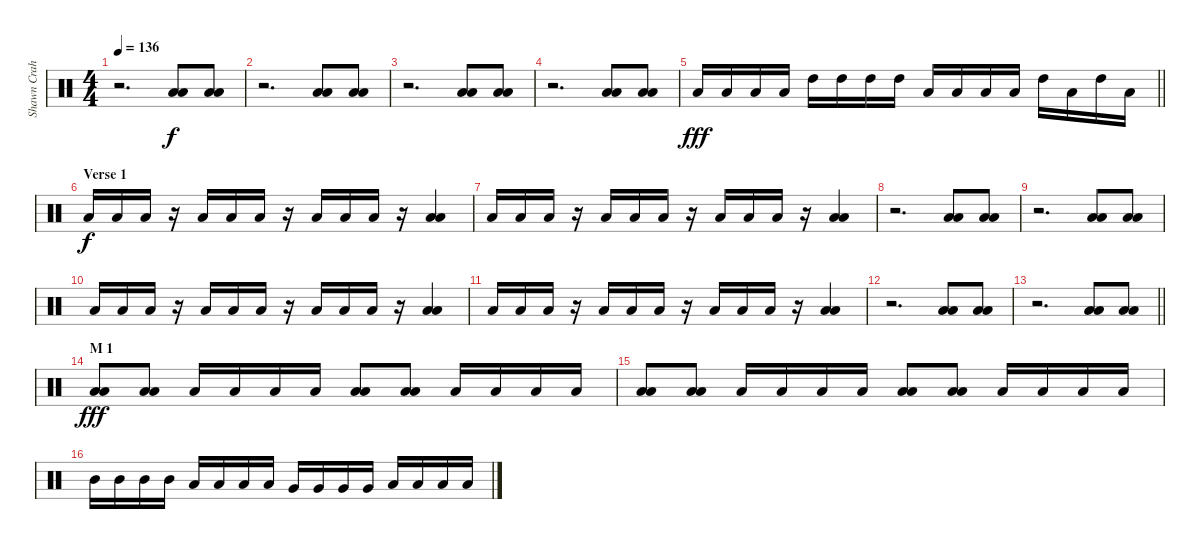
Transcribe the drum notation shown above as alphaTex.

\track ("Shawn Crahan" "Shawn Crah") {instrument percussion}
\staff {score}
\articulation defaults
\ts (4 4)
\tempo 136
\clef neutral
\ks c
r.2{d dy f} ("Low Floor Tom (hit)" "Low Floor Tom (hit)").8 ("Low Floor Tom (hit)" "Low Floor Tom (hit)").8 |
r.2{d} ("Low Floor Tom (hit)" "Low Floor Tom (hit)").8 ("Low Floor Tom (hit)" "Low Floor Tom (hit)").8 |
r.2{d} ("Low Floor Tom (hit)" "Low Floor Tom (hit)").8 ("Low Floor Tom (hit)" "Low Floor Tom (hit)").8 |
r.2{d} ("Low Floor Tom (hit)" "Low Floor Tom (hit)").8 ("Low Floor Tom (hit)" "Low Floor Tom (hit)").8 |
\barLineRight lightlight "Low Floor Tom (hit)".16{dy fff} "Low Floor Tom (hit)".16 "Low Floor Tom (hit)".16 "Low Floor Tom (hit)".16 "High Tom (hit)".16 "High Tom (hit)".16 "High Tom (hit)".16 "High Tom (hit)".16 "Low Floor Tom (hit)".16 "Low Floor Tom (hit)".16 "Low Floor Tom (hit)".16 "Low Floor Tom (hit)".16 "High Tom (hit)".16 "Low Floor Tom (hit)".16 "High Tom (hit)".16 "Low Floor Tom (hit)".16
|
\section ("" "Verse 1")
"Low Floor Tom (hit)".16{dy f} "Low Floor Tom (hit)".16 "Low Floor Tom (hit)".16 r.16 "Low Floor Tom (hit)".16 "Low Floor Tom (hit)".16 "Low Floor Tom (hit)".16 r.16 "Low Floor Tom (hit)".16 "Low Floor Tom (hit)".16 "Low Floor Tom (hit)".16 r.16 ("Low Floor Tom (hit)" "Low Floor Tom (hit)").4 |
"Low Floor Tom (hit)".16 "Low Floor Tom (hit)".16 "Low Floor Tom (hit)".16 r.16 "Low Floor Tom (hit)".16 "Low Floor Tom (hit)".16 "Low Floor Tom (hit)".16 r.16 "Low Floor Tom (hit)".16 "Low Floor Tom (hit)".16 "Low Floor Tom (hit)".16 r.16 ("Low Floor Tom (hit)" "Low Floor Tom (hit)").4 |
r.2{d} ("Low Floor Tom (hit)" "Low Floor Tom (hit)").8 ("Low Floor Tom (hit)" "Low Floor Tom (hit)").8 |
r.2{d} ("Low Floor Tom (hit)" "Low Floor Tom (hit)").8 ("Low Floor Tom (hit)" "Low Floor Tom (hit)").8 |
"Low Floor Tom (hit)".16 "Low Floor Tom (hit)".16 "Low Floor Tom (hit)".16 r.16 "Low Floor Tom (hit)".16 "Low Floor Tom (hit)".16 "Low Floor Tom (hit)".16 r.16 "Low Floor Tom (hit)".16 "Low Floor Tom (hit)".16 "Low Floor Tom (hit)".16 r.16 ("Low Floor Tom (hit)" "Low Floor Tom (hit)").4 |
"Low Floor Tom (hit)".16 "Low Floor Tom (hit)".16 "Low Floor Tom (hit)".16 r.16 "Low Floor Tom (hit)".16 "Low Floor Tom (hit)".16 "Low Floor Tom (hit)".16 r.16 "Low Floor Tom (hit)".16 "Low Floor Tom (hit)".16 "Low Floor Tom (hit)".16 r.16 ("Low Floor Tom (hit)" "Low Floor Tom (hit)").4 |
r.2{d} ("Low Floor Tom (hit)" "Low Floor Tom (hit)").8 ("Low Floor Tom (hit)" "Low Floor Tom (hit)").8 |
\barLineRight lightlight
r.2{d} ("Low Floor Tom (hit)" "Low Floor Tom (hit)").8 ("Low Floor Tom (hit)" "Low Floor Tom (hit)").8 |
\section ("" "M 1")
("Low Floor Tom (hit)" "Low Floor Tom (hit)").8{dy fff} ("Low Floor Tom (hit)" "Low Floor Tom (hit)").8 "Low Floor Tom (hit)".16 "Low Floor Tom (hit)".16 "Low Floor Tom (hit)".16 "Low Floor Tom (hit)".16 ("Low Floor Tom (hit)" "Low Floor Tom (hit)").8 ("Low Floor Tom (hit)" "Low Floor Tom (hit)").8 "Low Floor Tom (hit)".16 "Low Floor Tom (hit)".16 "Low Floor Tom (hit)".16 "Low Floor Tom (hit)".16 |
("Low Floor Tom (hit)" "Low Floor Tom (hit)").8 ("Low Floor Tom (hit)" "Low Floor Tom (hit)").8 "Low Floor Tom (hit)".16 "Low Floor Tom (hit)".16 "Low Floor Tom (hit)".16 "Low Floor Tom (hit)".16 ("Low Floor Tom (hit)" "Low Floor Tom (hit)").8 ("Low Floor Tom (hit)" "Low Floor Tom (hit)").8 "Low Floor Tom (hit)".16 "Low Floor Tom (hit)".16 "Low Floor Tom (hit)".16 "Low Floor Tom (hit)".16 |
"Mid Tom (hit)".16 "Mid Tom (hit)".16 "Mid Tom (hit)".16 "Mid Tom (hit)".16 "Low Tom (hit)".16 "Low Tom (hit)".16 "Low Tom (hit)".16 "Low Tom (hit)".16 "Very Low Tom (hit)".16 "Very Low Tom (hit)".16 "Very Low Tom (hit)".16 "Very Low Tom (hit)".16 "Low Floor Tom (hit)".16 "Low Floor Tom (hit)".16 "Low Floor Tom (hit)".16 "Low Floor Tom (hit)".16
